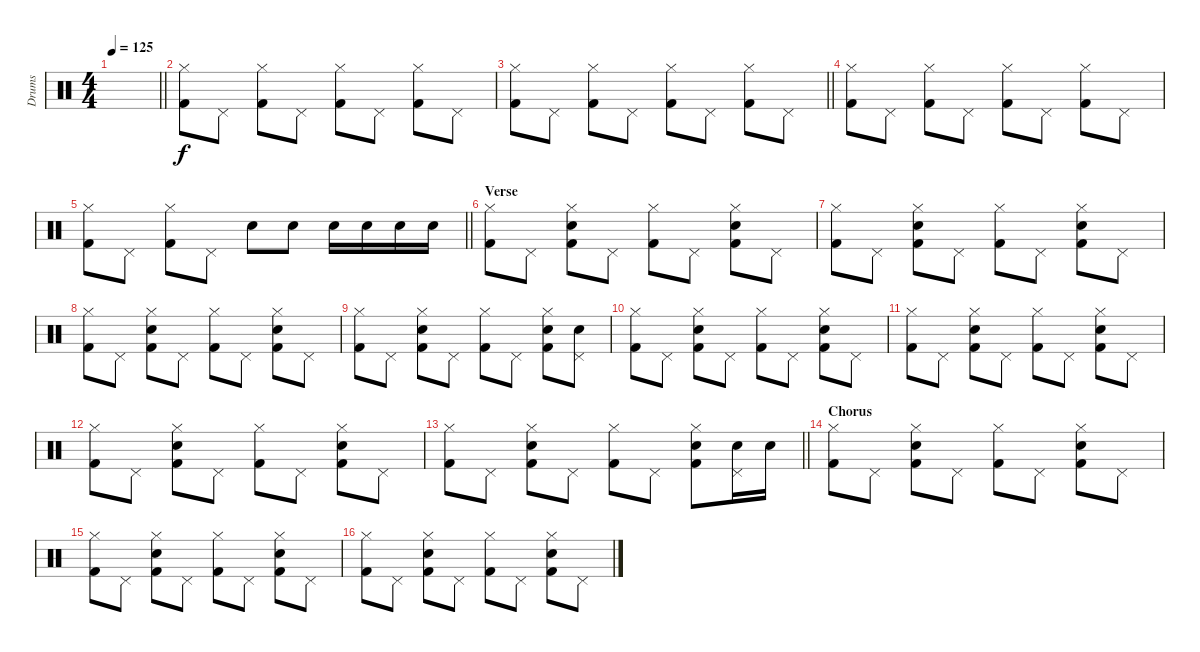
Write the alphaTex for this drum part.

\track ("Drums" "Drums") {instrument percussion}
\staff {score}
\articulation defaults
\ts (4 4)
\tempo 125
\clef neutral
\barLineRight lightlight
\ks c
|
\section ("" "")
("Hi-Hat (closed)" "Kick (hit) 2").8 "Pedal Hi-Hat (hit)".8 ("Hi-Hat (closed)" "Kick (hit) 2").8 "Pedal Hi-Hat (hit)".8 ("Hi-Hat (closed)" "Kick (hit) 2").8 "Pedal Hi-Hat (hit)".8 ("Hi-Hat (closed)" "Kick (hit) 2").8 "Pedal Hi-Hat (hit)".8 |
\barLineRight lightlight
("Hi-Hat (closed)" "Kick (hit) 2").8 "Pedal Hi-Hat (hit)".8 ("Hi-Hat (closed)" "Kick (hit) 2").8 "Pedal Hi-Hat (hit)".8 ("Hi-Hat (closed)" "Kick (hit) 2").8 "Pedal Hi-Hat (hit)".8 ("Hi-Hat (closed)" "Kick (hit) 2").8 "Pedal Hi-Hat (hit)".8 |
("Hi-Hat (closed)" "Kick (hit) 2").8 "Pedal Hi-Hat (hit)".8 ("Hi-Hat (closed)" "Kick (hit) 2").8 "Pedal Hi-Hat (hit)".8 ("Hi-Hat (closed)" "Kick (hit) 2").8 "Pedal Hi-Hat (hit)".8 ("Hi-Hat (closed)" "Kick (hit) 2").8 "Pedal Hi-Hat (hit)".8 |
\barLineRight lightlight
("Hi-Hat (closed)" "Kick (hit) 2").8 "Pedal Hi-Hat (hit)".8 ("Hi-Hat (closed)" "Kick (hit) 2").8 "Pedal Hi-Hat (hit)".8 "Snare (hit) 2".8 "Snare (hit) 2".8 "Snare (hit) 2".16 "Snare (hit) 2".16 "Snare (hit) 2".16 "Snare (hit) 2".16 |
\section ("" "Verse")
("Hi-Hat (closed)" "Kick (hit) 2").8 "Pedal Hi-Hat (hit)".8 ("Hi-Hat (closed)" "Snare (hit) 2" "Kick (hit) 2").8 "Pedal Hi-Hat (hit)".8 ("Hi-Hat (closed)" "Kick (hit) 2").8 "Pedal Hi-Hat (hit)".8 ("Hi-Hat (closed)" "Snare (hit) 2" "Kick (hit) 2").8 "Pedal Hi-Hat (hit)".8 |
("Hi-Hat (closed)" "Kick (hit) 2").8 "Pedal Hi-Hat (hit)".8 ("Hi-Hat (closed)" "Snare (hit) 2" "Kick (hit) 2").8 "Pedal Hi-Hat (hit)".8 ("Hi-Hat (closed)" "Kick (hit) 2").8 "Pedal Hi-Hat (hit)".8 ("Hi-Hat (closed)" "Snare (hit) 2" "Kick (hit) 2").8 "Pedal Hi-Hat (hit)".8 |
("Hi-Hat (closed)" "Kick (hit) 2").8 "Pedal Hi-Hat (hit)".8 ("Hi-Hat (closed)" "Snare (hit) 2" "Kick (hit) 2").8 "Pedal Hi-Hat (hit)".8 ("Hi-Hat (closed)" "Kick (hit) 2").8 "Pedal Hi-Hat (hit)".8 ("Hi-Hat (closed)" "Snare (hit) 2" "Kick (hit) 2").8 "Pedal Hi-Hat (hit)".8 |
("Hi-Hat (closed)" "Kick (hit) 2").8 "Pedal Hi-Hat (hit)".8 ("Hi-Hat (closed)" "Snare (hit) 2" "Kick (hit) 2").8 "Pedal Hi-Hat (hit)".8 ("Hi-Hat (closed)" "Kick (hit) 2").8 "Pedal Hi-Hat (hit)".8 ("Hi-Hat (closed)" "Snare (hit) 2" "Kick (hit) 2").8 ("Pedal Hi-Hat (hit)" "Snare (hit) 2").8 |
("Hi-Hat (closed)" "Kick (hit) 2").8 "Pedal Hi-Hat (hit)".8 ("Hi-Hat (closed)" "Snare (hit) 2" "Kick (hit) 2").8 "Pedal Hi-Hat (hit)".8 ("Hi-Hat (closed)" "Kick (hit) 2").8 "Pedal Hi-Hat (hit)".8 ("Hi-Hat (closed)" "Snare (hit) 2" "Kick (hit) 2").8 "Pedal Hi-Hat (hit)".8 |
("Hi-Hat (closed)" "Kick (hit) 2").8 "Pedal Hi-Hat (hit)".8 ("Hi-Hat (closed)" "Snare (hit) 2" "Kick (hit) 2").8 "Pedal Hi-Hat (hit)".8 ("Hi-Hat (closed)" "Kick (hit) 2").8 "Pedal Hi-Hat (hit)".8 ("Hi-Hat (closed)" "Snare (hit) 2" "Kick (hit) 2").8 "Pedal Hi-Hat (hit)".8 |
("Hi-Hat (closed)" "Kick (hit) 2").8 "Pedal Hi-Hat (hit)".8 ("Hi-Hat (closed)" "Snare (hit) 2" "Kick (hit) 2").8 "Pedal Hi-Hat (hit)".8 ("Hi-Hat (closed)" "Kick (hit) 2").8 "Pedal Hi-Hat (hit)".8 ("Hi-Hat (closed)" "Snare (hit) 2" "Kick (hit) 2").8 "Pedal Hi-Hat (hit)".8 |
\barLineRight lightlight
("Hi-Hat (closed)" "Kick (hit) 2").8 "Pedal Hi-Hat (hit)".8 ("Hi-Hat (closed)" "Snare (hit) 2" "Kick (hit) 2").8 "Pedal Hi-Hat (hit)".8 ("Hi-Hat (closed)" "Kick (hit) 2").8 "Pedal Hi-Hat (hit)".8 ("Hi-Hat (closed)" "Snare (hit) 2" "Kick (hit) 2").8 ("Pedal Hi-Hat (hit)" "Snare (hit) 2").16 "Snare (hit) 2".16 |
\section ("" "Chorus")
("Hi-Hat (closed)" "Kick (hit) 2").8 "Pedal Hi-Hat (hit)".8 ("Hi-Hat (closed)" "Snare (hit) 2" "Kick (hit) 2").8 "Pedal Hi-Hat (hit)".8 ("Hi-Hat (closed)" "Kick (hit) 2").8 "Pedal Hi-Hat (hit)".8 ("Hi-Hat (closed)" "Snare (hit) 2" "Kick (hit) 2").8 "Pedal Hi-Hat (hit)".8 |
("Hi-Hat (closed)" "Kick (hit) 2").8 "Pedal Hi-Hat (hit)".8 ("Hi-Hat (closed)" "Snare (hit) 2" "Kick (hit) 2").8 "Pedal Hi-Hat (hit)".8 ("Hi-Hat (closed)" "Kick (hit) 2").8 "Pedal Hi-Hat (hit)".8 ("Hi-Hat (closed)" "Snare (hit) 2" "Kick (hit) 2").8 "Pedal Hi-Hat (hit)".8 |
("Hi-Hat (closed)" "Kick (hit) 2").8 "Pedal Hi-Hat (hit)".8 ("Hi-Hat (closed)" "Snare (hit) 2" "Kick (hit) 2").8 "Pedal Hi-Hat (hit)".8 ("Hi-Hat (closed)" "Kick (hit) 2").8 "Pedal Hi-Hat (hit)".8 ("Hi-Hat (closed)" "Snare (hit) 2" "Kick (hit) 2").8 "Pedal Hi-Hat (hit)".8
